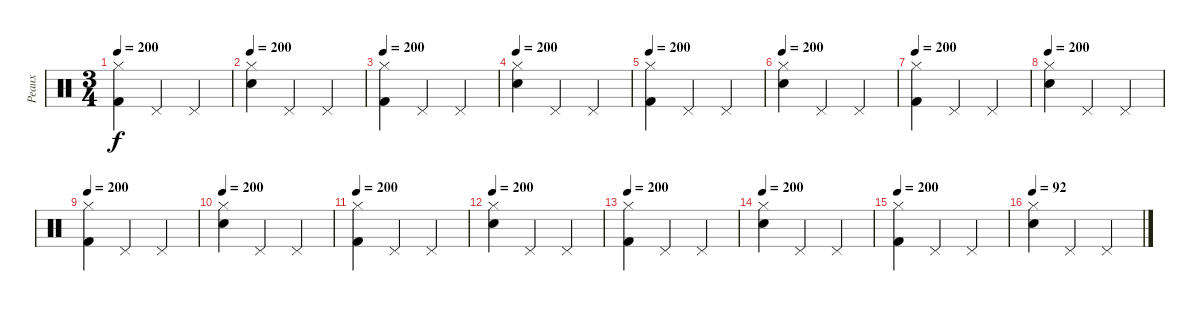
\track ("Peaux" "Peaux") {instrument percussion}
\staff {score}
\articulation defaults
\ts (3 4)
\tempo 200
\clef neutral
\ks c
("Hi-Hat (closed)" "Kick (hit) 2").4{dy f} "Pedal Hi-Hat (hit)".4 "Pedal Hi-Hat (hit)".4 |
\tempo 200
("Hi-Hat (closed)" "Snare (hit) 2").4 "Pedal Hi-Hat (hit)".4 "Pedal Hi-Hat (hit)".4 |
\tempo 200
("Hi-Hat (closed)" "Kick (hit) 2").4 "Pedal Hi-Hat (hit)".4 "Pedal Hi-Hat (hit)".4 |
\tempo 200
("Hi-Hat (closed)" "Snare (hit) 2").4 "Pedal Hi-Hat (hit)".4 "Pedal Hi-Hat (hit)".4 |
\tempo 200
("Hi-Hat (closed)" "Kick (hit) 2").4 "Pedal Hi-Hat (hit)".4 "Pedal Hi-Hat (hit)".4 |
\tempo 200
("Hi-Hat (closed)" "Snare (hit) 2").4 "Pedal Hi-Hat (hit)".4 "Pedal Hi-Hat (hit)".4 |
\tempo 200
("Hi-Hat (closed)" "Kick (hit) 2").4 "Pedal Hi-Hat (hit)".4 "Pedal Hi-Hat (hit)".4 |
\tempo 200
("Hi-Hat (closed)" "Snare (hit) 2").4 "Pedal Hi-Hat (hit)".4 "Pedal Hi-Hat (hit)".4 |
\tempo 200
("Hi-Hat (closed)" "Kick (hit) 2").4 "Pedal Hi-Hat (hit)".4 "Pedal Hi-Hat (hit)".4 |
\tempo 200
("Hi-Hat (closed)" "Snare (hit) 2").4 "Pedal Hi-Hat (hit)".4 "Pedal Hi-Hat (hit)".4 |
\tempo 200
("Hi-Hat (closed)" "Kick (hit) 2").4 "Pedal Hi-Hat (hit)".4 "Pedal Hi-Hat (hit)".4 |
\tempo 200
("Hi-Hat (closed)" "Snare (hit) 2").4 "Pedal Hi-Hat (hit)".4 "Pedal Hi-Hat (hit)".4 |
\tempo 200
("Hi-Hat (closed)" "Kick (hit) 2").4 "Pedal Hi-Hat (hit)".4 "Pedal Hi-Hat (hit)".4 |
\tempo 200
("Hi-Hat (closed)" "Snare (hit) 2").4 "Pedal Hi-Hat (hit)".4 "Pedal Hi-Hat (hit)".4 |
\tempo 200
("Hi-Hat (closed)" "Kick (hit) 2").4 "Pedal Hi-Hat (hit)".4 "Pedal Hi-Hat (hit)".4 |
\tempo 92
("Hi-Hat (closed)" "Snare (hit) 2").4 "Pedal Hi-Hat (hit)".4 "Pedal Hi-Hat (hit)".4
